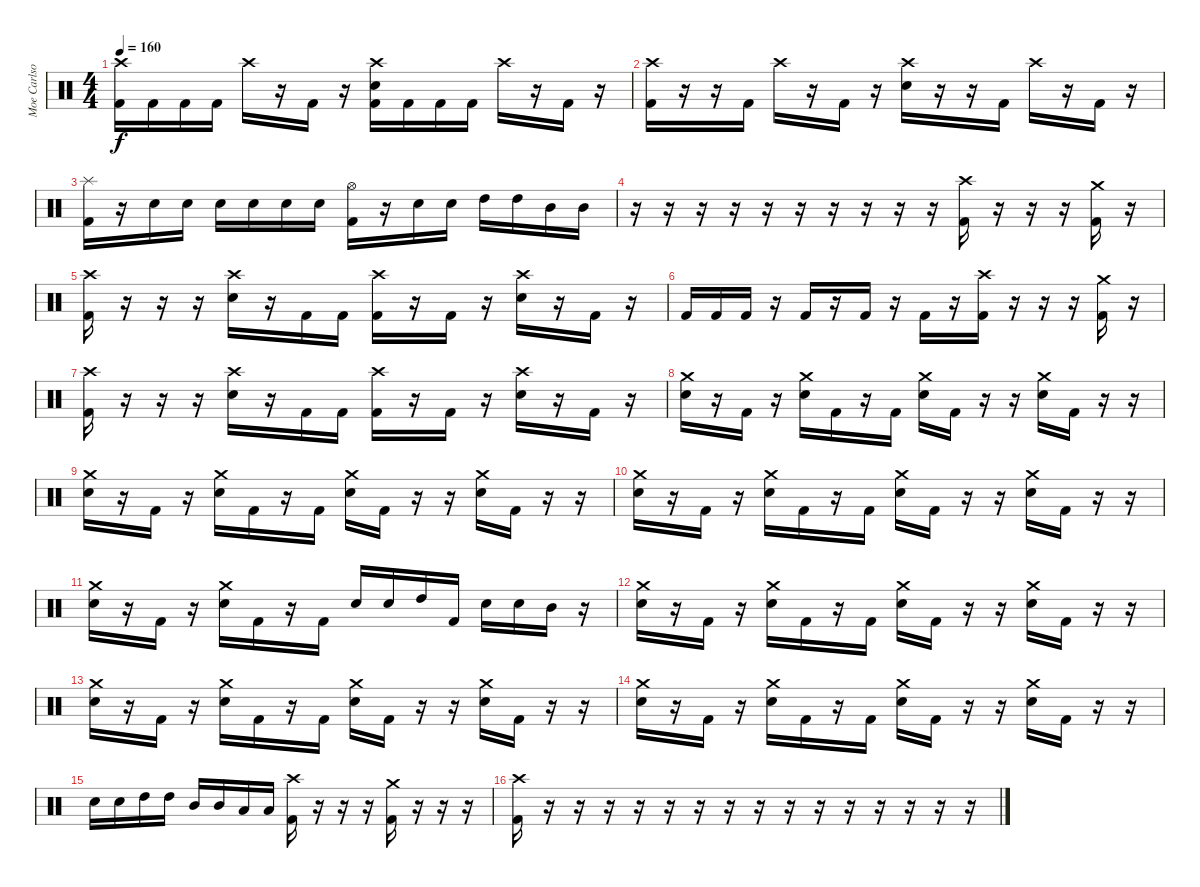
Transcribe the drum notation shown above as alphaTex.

\track ("Moe Carlson" "Moe Carlso") {instrument percussion}
\staff {score}
\articulation defaults
\ts (4 4)
\tempo 160
\clef neutral
\ks c
("Crash high (hit)" "Kick (hit) 2").16{dy f} "Kick (hit) 2".16 "Kick (hit) 2".16 "Kick (hit) 2".16 "Crash high (hit)".16 r.16 "Kick (hit) 2".16 r.16 ("Crash high (hit)" "Electric Snare (hit)" "Kick (hit) 2").16 "Kick (hit) 2".16 "Kick (hit) 2".16 "Kick (hit) 2".16 "Crash high (hit)".16 r.16 "Kick (hit) 2".16 r.16 |
("Crash high (hit)" "Kick (hit) 2").16 r.16 r.16 "Kick (hit) 2".16 "Crash high (hit)".16 r.16 "Kick (hit) 2".16 r.16 ("Crash high (hit)" "Electric Snare (hit)").16 r.16 r.16 "Kick (hit) 2".16 "Crash high (hit)".16 r.16 "Kick (hit) 2".16 r.16 |
("Splash (hit)" "Kick (hit) 2").16 r.16 "Electric Snare (hit)".16 "Electric Snare (hit)".16 "Electric Snare (hit)".16 "Electric Snare (hit)".16 "Electric Snare (hit)".16 "Electric Snare (hit)".16 ("Hi-Hat (open)" "Kick (hit) 2").16 r.16 "Electric Snare (hit)".16 "Electric Snare (hit)".16 "High Tom (hit)".16 "High Tom (hit)".16 "Mid Tom (hit)".16 "Mid Tom (hit)".16 |
r.16 r.16 r.16 r.16 r.16 r.16 r.16 r.16 r.16 r.16 ("Crash high (hit)" "Kick (hit) 2").16 r.16 r.16 r.16 ("Crash medium (hit)" "Kick (hit) 2").16 r.16 |
("Crash high (hit)" "Kick (hit) 2").16 r.16 r.16 r.16 ("Crash high (hit)" "Electric Snare (hit)").16 r.16 "Kick (hit) 2".16 "Kick (hit) 2".16 ("Crash high (hit)" "Kick (hit) 2").16 r.16 "Kick (hit) 2".16 r.16 ("Crash high (hit)" "Electric Snare (hit)").16 r.16 "Kick (hit) 2".16 r.16 |
"Kick (hit) 2".16 "Kick (hit) 2".16 "Kick (hit) 2".16 r.16 "Kick (hit) 2".16 r.16 "Kick (hit) 2".16 r.16 "Kick (hit) 2".16 r.16 ("Crash high (hit)" "Kick (hit) 2").16 r.16 r.16 r.16 ("Crash medium (hit)" "Kick (hit) 2").16 r.16 |
("Crash high (hit)" "Kick (hit) 2").16 r.16 r.16 r.16 ("Crash high (hit)" "Electric Snare (hit)").16 r.16 "Kick (hit) 2".16 "Kick (hit) 2".16 ("Crash high (hit)" "Kick (hit) 2").16 r.16 "Kick (hit) 2".16 r.16 ("Crash high (hit)" "Electric Snare (hit)").16 r.16 "Kick (hit) 2".16 r.16 |
("Crash medium (hit)" "Electric Snare (hit)").16 r.16 "Kick (hit) 2".16 r.16 ("Crash medium (hit)" "Electric Snare (hit)").16 "Kick (hit) 2".16 r.16 "Kick (hit) 2".16 ("Crash medium (hit)" "Electric Snare (hit)").16 "Kick (hit) 2".16 r.16 r.16 ("Crash medium (hit)" "Electric Snare (hit)").16 "Kick (hit) 2".16 r.16 r.16 |
("Crash medium (hit)" "Electric Snare (hit)").16 r.16 "Kick (hit) 2".16 r.16 ("Crash medium (hit)" "Electric Snare (hit)").16 "Kick (hit) 2".16 r.16 "Kick (hit) 2".16 ("Crash medium (hit)" "Electric Snare (hit)").16 "Kick (hit) 2".16 r.16 r.16 ("Crash medium (hit)" "Electric Snare (hit)").16 "Kick (hit) 2".16 r.16 r.16 |
("Crash medium (hit)" "Electric Snare (hit)").16 r.16 "Kick (hit) 2".16 r.16 ("Crash medium (hit)" "Electric Snare (hit)").16 "Kick (hit) 2".16 r.16 "Kick (hit) 2".16 ("Crash medium (hit)" "Electric Snare (hit)").16 "Kick (hit) 2".16 r.16 r.16 ("Crash medium (hit)" "Electric Snare (hit)").16 "Kick (hit) 2".16 r.16 r.16 |
("Crash medium (hit)" "Electric Snare (hit)").16 r.16 "Kick (hit) 2".16 r.16 ("Crash medium (hit)" "Electric Snare (hit)").16 "Kick (hit) 2".16 r.16 "Kick (hit) 2".16 "Electric Snare (hit)".16 "Electric Snare (hit)".16 "High Tom (hit)".16 "Kick (hit) 2".16 "Electric Snare (hit)".16 "Electric Snare (hit)".16 "Mid Tom (hit)".16 r.16 |
("Crash medium (hit)" "Electric Snare (hit)").16 r.16 "Kick (hit) 2".16 r.16 ("Crash medium (hit)" "Electric Snare (hit)").16 "Kick (hit) 2".16 r.16 "Kick (hit) 2".16 ("Crash medium (hit)" "Electric Snare (hit)").16 "Kick (hit) 2".16 r.16 r.16 ("Crash medium (hit)" "Electric Snare (hit)").16 "Kick (hit) 2".16 r.16 r.16 |
("Crash medium (hit)" "Electric Snare (hit)").16 r.16 "Kick (hit) 2".16 r.16 ("Crash medium (hit)" "Electric Snare (hit)").16 "Kick (hit) 2".16 r.16 "Kick (hit) 2".16 ("Crash medium (hit)" "Electric Snare (hit)").16 "Kick (hit) 2".16 r.16 r.16 ("Crash medium (hit)" "Electric Snare (hit)").16 "Kick (hit) 2".16 r.16 r.16 |
("Crash medium (hit)" "Electric Snare (hit)").16 r.16 "Kick (hit) 2".16 r.16 ("Crash medium (hit)" "Electric Snare (hit)").16 "Kick (hit) 2".16 r.16 "Kick (hit) 2".16 ("Crash medium (hit)" "Electric Snare (hit)").16 "Kick (hit) 2".16 r.16 r.16 ("Crash medium (hit)" "Electric Snare (hit)").16 "Kick (hit) 2".16 r.16 r.16 |
"Electric Snare (hit)".16 "Electric Snare (hit)".16 "High Tom (hit)".16 "High Tom (hit)".16 "Mid Tom (hit)".16 "Mid Tom (hit)".16 "Low Tom (hit)".16 "Low Tom (hit)".16 ("Crash high (hit)" "Kick (hit) 2").16 r.16 r.16 r.16 ("Crash medium (hit)" "Kick (hit) 2").16 r.16 r.16 r.16 |
("Crash high (hit)" "Kick (hit) 2").16 r.16 r.16 r.16 r.16 r.16 r.16 r.16 r.16 r.16 r.16 r.16 r.16 r.16 r.16 r.16
